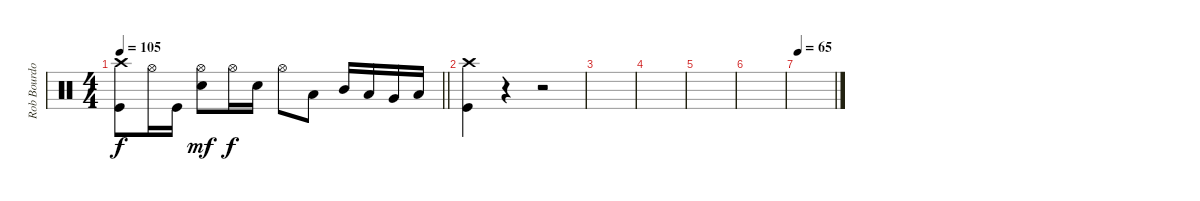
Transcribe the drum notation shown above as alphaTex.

\track ("Rob Bourdon - Drums" "Rob Bourdo") {instrument percussion}
\staff {score}
\articulation defaults
\ts (4 4)
\tempo 105
\clef neutral
\barLineRight lightlight
\ks c
("Crash high (hit)" "Kick (hit)").8{dy f} "Hi-Hat (open)".16 "Kick (hit)".16 ("Hi-Hat (open)" "Electric Snare (hit)").8{dy mf} "Hi-Hat (open)".16{dy f} "Electric Snare (hit)".16 "Hi-Hat (open)".8 "Low Tom (hit)".8 "Mid Tom (hit)".16 "Low Tom (hit)".16 "Very Low Tom (hit)".16 "Low Floor Tom (hit)".16 |
("Crash high (hit)" "Kick (hit)").4 r.4 r.2 |
|
|
|
|
\tempo 65
